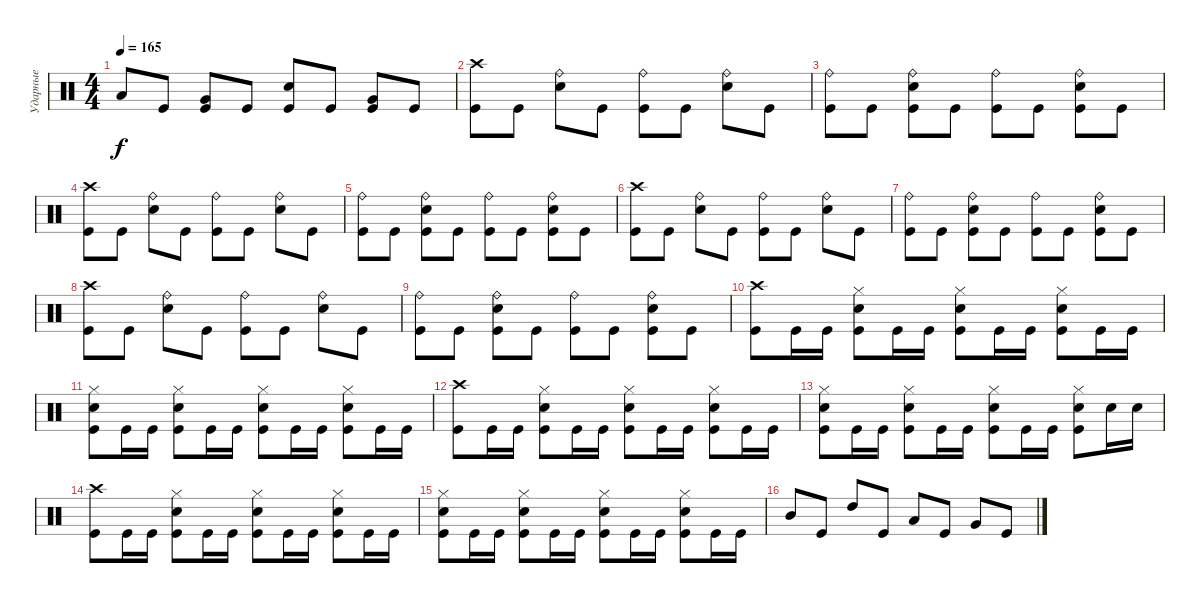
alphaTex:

\track ("Ударные" "Ударные") {instrument percussion}
\staff {score}
\articulation defaults
\ts (4 4)
\tempo 165
\clef neutral
\ks c "Low Tom (hit)".8{dy f} "Kick (hit)".8
("Very Low Tom (hit)" "Kick (hit)").8 "Kick (hit)".8 ("Electric Snare (hit)" "Kick (hit)").8 "Kick (hit)".8 ("Very Low Tom (hit)" "Kick (hit)").8 "Kick (hit)".8 |
("Crash high (hit)" "Kick (hit)").8 "Kick (hit)".8 ("Ride (bell)" "Electric Snare (hit)").8 "Kick (hit)".8 ("Ride (bell)" "Kick (hit)").8 "Kick (hit)".8 ("Ride (bell)" "Electric Snare (hit)").8 "Kick (hit)".8 |
("Ride (bell)" "Kick (hit)").8 "Kick (hit)".8 ("Ride (bell)" "Electric Snare (hit)" "Kick (hit)").8 "Kick (hit)".8 ("Ride (bell)" "Kick (hit)").8 "Kick (hit)".8 ("Ride (bell)" "Electric Snare (hit)" "Kick (hit)").8 "Kick (hit)".8 |
("Crash high (hit)" "Kick (hit)").8 "Kick (hit)".8 ("Ride (bell)" "Electric Snare (hit)").8 "Kick (hit)".8 ("Ride (bell)" "Kick (hit)").8 "Kick (hit)".8 ("Ride (bell)" "Electric Snare (hit)").8 "Kick (hit)".8 |
("Ride (bell)" "Kick (hit)").8 "Kick (hit)".8 ("Ride (bell)" "Electric Snare (hit)" "Kick (hit)").8 "Kick (hit)".8 ("Ride (bell)" "Kick (hit)").8 "Kick (hit)".8 ("Ride (bell)" "Electric Snare (hit)" "Kick (hit)").8 "Kick (hit)".8 |
("Crash high (hit)" "Kick (hit)").8 "Kick (hit)".8 ("Ride (bell)" "Electric Snare (hit)").8 "Kick (hit)".8 ("Ride (bell)" "Kick (hit)").8 "Kick (hit)".8 ("Ride (bell)" "Electric Snare (hit)").8 "Kick (hit)".8 |
("Ride (bell)" "Kick (hit)").8 "Kick (hit)".8 ("Ride (bell)" "Electric Snare (hit)" "Kick (hit)").8 "Kick (hit)".8 ("Ride (bell)" "Kick (hit)").8 "Kick (hit)".8 ("Ride (bell)" "Electric Snare (hit)" "Kick (hit)").8 "Kick (hit)".8 |
("Crash high (hit)" "Kick (hit)").8 "Kick (hit)".8 ("Ride (bell)" "Electric Snare (hit)").8 "Kick (hit)".8 ("Ride (bell)" "Kick (hit)").8 "Kick (hit)".8 ("Ride (bell)" "Electric Snare (hit)").8 "Kick (hit)".8 |
("Ride (bell)" "Kick (hit)").8 "Kick (hit)".8 ("Ride (bell)" "Electric Snare (hit)" "Kick (hit)").8 "Kick (hit)".8 ("Ride (bell)" "Kick (hit)").8 "Kick (hit)".8 ("Ride (bell)" "Electric Snare (hit)" "Kick (hit)").8 "Kick (hit)".8 |
("Crash high (hit)" "Kick (hit)").8 "Kick (hit)".16 "Kick (hit)".16 ("Hi-Hat (closed)" "Electric Snare (hit)" "Kick (hit)").8 "Kick (hit)".16 "Kick (hit)".16 ("Hi-Hat (closed)" "Electric Snare (hit)" "Kick (hit)").8 "Kick (hit)".16 "Kick (hit)".16 ("Hi-Hat (closed)" "Electric Snare (hit)" "Kick (hit)").8 "Kick (hit)".16 "Kick (hit)".16 |
("Hi-Hat (closed)" "Electric Snare (hit)" "Kick (hit)").8 "Kick (hit)".16 "Kick (hit)".16 ("Hi-Hat (closed)" "Electric Snare (hit)" "Kick (hit)").8 "Kick (hit)".16 "Kick (hit)".16 ("Hi-Hat (closed)" "Electric Snare (hit)" "Kick (hit)").8 "Kick (hit)".16 "Kick (hit)".16 ("Hi-Hat (closed)" "Electric Snare (hit)" "Kick (hit)").8 "Kick (hit)".16 "Kick (hit)".16 |
("Crash high (hit)" "Kick (hit)").8 "Kick (hit)".16 "Kick (hit)".16 ("Hi-Hat (closed)" "Electric Snare (hit)" "Kick (hit)").8 "Kick (hit)".16 "Kick (hit)".16 ("Hi-Hat (closed)" "Electric Snare (hit)" "Kick (hit)").8 "Kick (hit)".16 "Kick (hit)".16 ("Hi-Hat (closed)" "Electric Snare (hit)" "Kick (hit)").8 "Kick (hit)".16 "Kick (hit)".16 |
("Hi-Hat (closed)" "Electric Snare (hit)" "Kick (hit)").8 "Kick (hit)".16 "Kick (hit)".16 ("Hi-Hat (closed)" "Electric Snare (hit)" "Kick (hit)").8 "Kick (hit)".16 "Kick (hit)".16 ("Hi-Hat (closed)" "Electric Snare (hit)" "Kick (hit)").8 "Kick (hit)".16 "Kick (hit)".16 ("Hi-Hat (closed)" "Electric Snare (hit)" "Kick (hit)").8 "Electric Snare (hit)".16 "Electric Snare (hit)".16 |
("Crash high (hit)" "Kick (hit)").8 "Kick (hit)".16 "Kick (hit)".16 ("Hi-Hat (closed)" "Electric Snare (hit)" "Kick (hit)").8 "Kick (hit)".16 "Kick (hit)".16 ("Hi-Hat (closed)" "Electric Snare (hit)" "Kick (hit)").8 "Kick (hit)".16 "Kick (hit)".16 ("Hi-Hat (closed)" "Electric Snare (hit)" "Kick (hit)").8 "Kick (hit)".16 "Kick (hit)".16 |
("Hi-Hat (closed)" "Electric Snare (hit)" "Kick (hit)").8 "Kick (hit)".16 "Kick (hit)".16 ("Hi-Hat (closed)" "Electric Snare (hit)" "Kick (hit)").8 "Kick (hit)".16 "Kick (hit)".16 ("Hi-Hat (closed)" "Electric Snare (hit)" "Kick (hit)").8 "Kick (hit)".16 "Kick (hit)".16 ("Hi-Hat (closed)" "Electric Snare (hit)" "Kick (hit)").8 "Kick (hit)".16 "Kick (hit)".16 |
"Mid Tom (hit)".8 "Kick (hit)".8 "High Tom (hit)".8 "Kick (hit)".8 "Low Tom (hit)".8 "Kick (hit)".8 "Very Low Tom (hit)".8 "Kick (hit)".8
